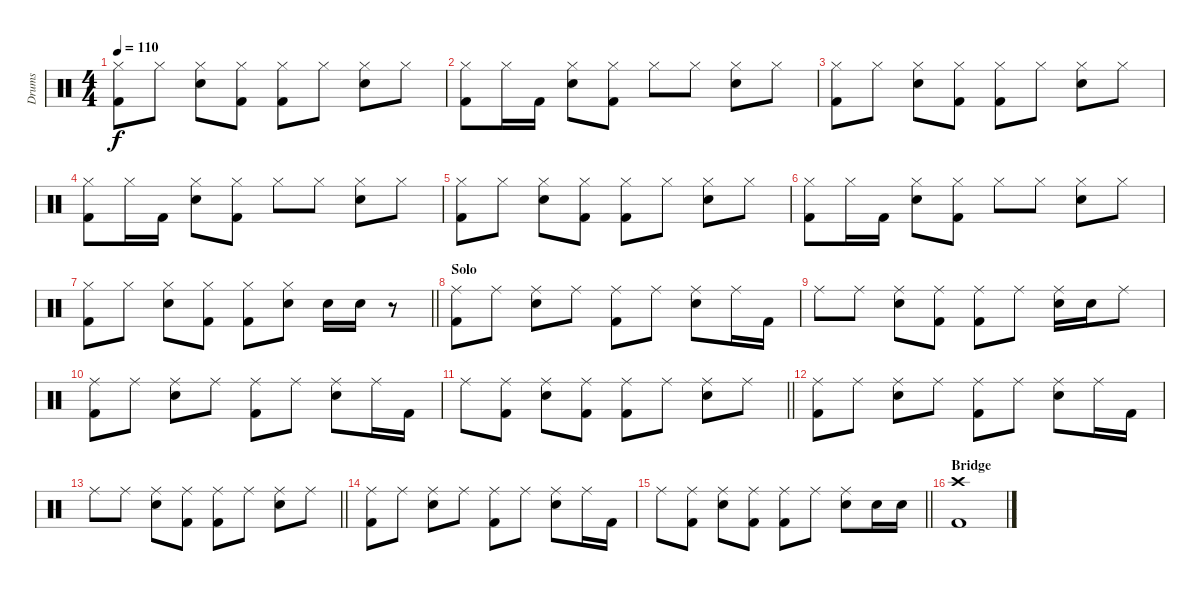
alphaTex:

\track ("Drums" "Drums") {instrument percussion}
\staff {score}
\articulation defaults
\ts (4 4)
\tempo 110
\clef neutral
\ks c
("Hi-Hat (closed)" "Kick (hit) 2").8{dy f} "Hi-Hat (closed)".8 ("Hi-Hat (closed)" "Snare (hit) 2").8 ("Hi-Hat (closed)" "Kick (hit) 2").8 ("Hi-Hat (closed)" "Kick (hit) 2").8 "Hi-Hat (closed)".8 ("Hi-Hat (closed)" "Snare (hit) 2").8 "Hi-Hat (closed)".8 |
("Hi-Hat (closed)" "Kick (hit) 2").8 "Hi-Hat (closed)".16 "Kick (hit) 2".16 ("Hi-Hat (closed)" "Snare (hit) 2").8 ("Hi-Hat (closed)" "Kick (hit) 2").8 "Hi-Hat (closed)".8 "Hi-Hat (closed)".8 ("Hi-Hat (closed)" "Snare (hit) 2").8 "Hi-Hat (closed)".8 |
("Hi-Hat (closed)" "Kick (hit) 2").8 "Hi-Hat (closed)".8 ("Hi-Hat (closed)" "Snare (hit) 2").8 ("Hi-Hat (closed)" "Kick (hit) 2").8 ("Hi-Hat (closed)" "Kick (hit) 2").8 "Hi-Hat (closed)".8 ("Hi-Hat (closed)" "Snare (hit) 2").8 "Hi-Hat (closed)".8 |
("Hi-Hat (closed)" "Kick (hit) 2").8 "Hi-Hat (closed)".16 "Kick (hit) 2".16 ("Hi-Hat (closed)" "Snare (hit) 2").8 ("Hi-Hat (closed)" "Kick (hit) 2").8 "Hi-Hat (closed)".8 "Hi-Hat (closed)".8 ("Hi-Hat (closed)" "Snare (hit) 2").8 "Hi-Hat (closed)".8 |
("Hi-Hat (closed)" "Kick (hit) 2").8 "Hi-Hat (closed)".8 ("Hi-Hat (closed)" "Snare (hit) 2").8 ("Hi-Hat (closed)" "Kick (hit) 2").8 ("Hi-Hat (closed)" "Kick (hit) 2").8 "Hi-Hat (closed)".8 ("Hi-Hat (closed)" "Snare (hit) 2").8 "Hi-Hat (closed)".8 |
("Hi-Hat (closed)" "Kick (hit) 2").8 "Hi-Hat (closed)".16 "Kick (hit) 2".16 ("Hi-Hat (closed)" "Snare (hit) 2").8 ("Hi-Hat (closed)" "Kick (hit) 2").8 "Hi-Hat (closed)".8 "Hi-Hat (closed)".8 ("Hi-Hat (closed)" "Snare (hit) 2").8 "Hi-Hat (closed)".8 |
\barLineRight lightlight
("Hi-Hat (closed)" "Kick (hit) 2").8 "Hi-Hat (closed)".8 ("Hi-Hat (closed)" "Snare (hit) 2").8 ("Hi-Hat (closed)" "Kick (hit) 2").8 ("Hi-Hat (closed)" "Kick (hit) 2").8 ("Hi-Hat (closed)" "Snare (hit) 2").8 "Snare (hit) 2".16 "Snare (hit) 2".16 r.8 |
\section ("" "Solo")
("Ride (middle)" "Kick (hit) 2").8 "Ride (middle)".8 ("Ride (middle)" "Snare (hit) 2").8 "Ride (middle)".8 ("Ride (middle)" "Kick (hit) 2").8 "Ride (middle)".8 ("Ride (middle)" "Snare (hit) 2").8 "Ride (middle)".16 "Kick (hit) 2".16 |
"Ride (middle)".8 "Ride (middle)".8 ("Ride (middle)" "Snare (hit) 2").8 ("Ride (middle)" "Kick (hit) 2").8 ("Ride (middle)" "Kick (hit) 2").8 "Ride (middle)".8 ("Ride (middle)" "Snare (hit) 2").16 "Snare (hit) 2".16 "Ride (middle)".8 |
("Ride (middle)" "Kick (hit) 2").8 "Ride (middle)".8 ("Ride (middle)" "Snare (hit) 2").8 "Ride (middle)".8 ("Ride (middle)" "Kick (hit) 2").8 "Ride (middle)".8 ("Ride (middle)" "Snare (hit) 2").8 "Ride (middle)".16 "Kick (hit) 2".16 |
\barLineRight lightlight "Ride (middle)".8
("Ride (middle)" "Kick (hit) 2").8 ("Ride (middle)" "Snare (hit) 2").8 ("Ride (middle)" "Kick (hit) 2").8 ("Ride (middle)" "Kick (hit) 2").8 "Ride (middle)".8 ("Ride (middle)" "Snare (hit) 2").8 "Ride (middle)".8 |
("Ride (middle)" "Kick (hit) 2").8 "Ride (middle)".8 ("Ride (middle)" "Snare (hit) 2").8 "Ride (middle)".8 ("Ride (middle)" "Kick (hit) 2").8 "Ride (middle)".8 ("Ride (middle)" "Snare (hit) 2").8 "Ride (middle)".16 "Kick (hit) 2".16 |
\barLineRight lightlight "Ride (middle)".8 "Ride (middle)".8
("Ride (middle)" "Snare (hit) 2").8 ("Ride (middle)" "Kick (hit) 2").8 ("Ride (middle)" "Kick (hit) 2").8 "Ride (middle)".8 ("Ride (middle)" "Snare (hit) 2").8 "Ride (middle)".8 |
("Ride (middle)" "Kick (hit) 2").8 "Ride (middle)".8 ("Ride (middle)" "Snare (hit) 2").8 "Ride (middle)".8 ("Ride (middle)" "Kick (hit) 2").8 "Ride (middle)".8 ("Ride (middle)" "Snare (hit) 2").8 "Ride (middle)".16 "Kick (hit) 2".16 |
\barLineRight lightlight "Ride (middle)".8
("Ride (middle)" "Kick (hit) 2").8 ("Ride (middle)" "Snare (hit) 2").8 ("Ride (middle)" "Kick (hit) 2").8 ("Ride (middle)" "Kick (hit) 2").8 "Ride (middle)".8 ("Ride (middle)" "Snare (hit) 2").8 "Snare (hit) 2".16 "Snare (hit) 2".16 |
\section ("" "Bridge")
("Crash high (hit)" "Kick (hit) 2").1
